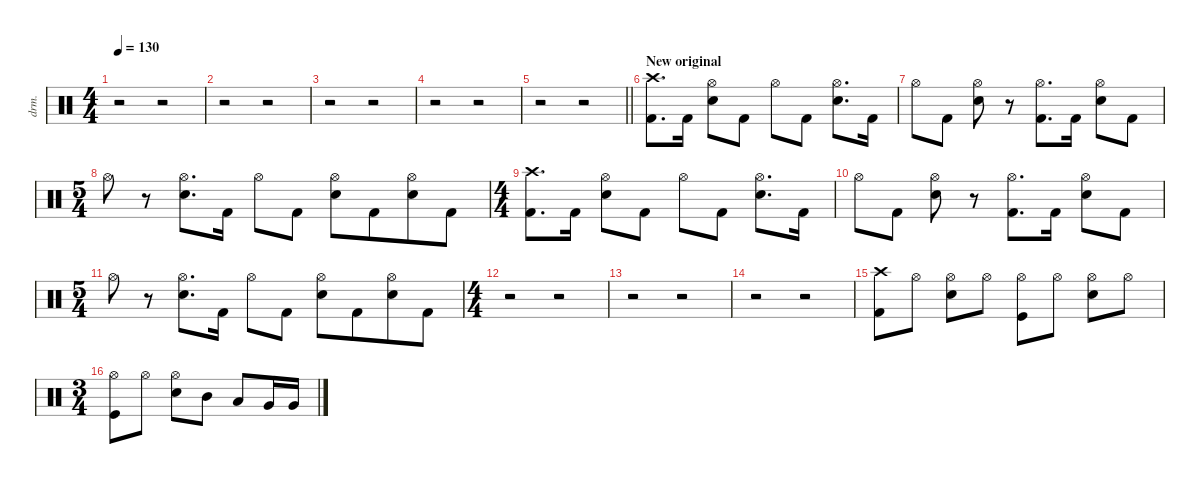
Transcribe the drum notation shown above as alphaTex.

\defaultSystemsLayout 4
\hideDynamics
\bracketExtendMode nobrackets
\track ("Manouche" "drm.") {instrument percussion}
\staff {score}
\articulation defaults
\ts (4 4)
\tempo 130
\clef neutral
\ks c
r.2{dy ff beam Down} r.2{beam Down} |
r.2{beam Down} r.2{beam Down} |
r.2{beam Down} r.2{beam Down} |
r.2{beam Down} r.2{beam Down} |
\barLineRight lightlight
r.2{beam Down} r.2{beam Down} |
\section ("" "New original")
("Crash high (hit)" "Kick (hit) 2").8{d dy f beam Down} "Kick (hit) 2".16{beam Down} ("Hi-Hat (open)" "Snare (hit) 2").8{beam Down} "Kick (hit) 2".8{beam Down} "Hi-Hat (open)".8{beam Down} "Kick (hit) 2".8{beam Down} ("Hi-Hat (open)" "Snare (hit) 2").8{d beam Down} "Kick (hit) 2".16{beam Down} |
"Hi-Hat (open)".8{beam Down} "Kick (hit) 2".8{beam Down} ("Hi-Hat (open)" "Snare (hit) 2").8{beam Down} r.8{beam Down} ("Hi-Hat (open)" "Kick (hit) 2").8{d beam Down} "Kick (hit) 2".16{beam Down} ("Hi-Hat (open)" "Snare (hit) 2").8{beam Down} "Kick (hit) 2".8{beam Down} |
\ts (5 4)
\beaming (8 2 2 2 4)
"Hi-Hat (open)".8{beam Down} r.8{beam Down} ("Hi-Hat (open)" "Snare (hit) 2").8{d beam Down} "Kick (hit) 2".16{beam Down} "Hi-Hat (open)".8{beam Down} "Kick (hit) 2".8{beam Down} ("Hi-Hat (open)" "Snare (hit) 2").8{beam Down} "Kick (hit) 2".8{beam Down} ("Hi-Hat (open)" "Snare (hit) 2").8{beam Down} "Kick (hit) 2".8{beam Down} |
\ts (4 4)
\beaming (8 2 2 2 2)
("Crash high (hit)" "Kick (hit) 2").8{d beam Down} "Kick (hit) 2".16{beam Down} ("Hi-Hat (open)" "Snare (hit) 2").8{beam Down} "Kick (hit) 2".8{beam Down} "Hi-Hat (open)".8{beam Down} "Kick (hit) 2".8{beam Down} ("Hi-Hat (open)" "Snare (hit) 2").8{d beam Down} "Kick (hit) 2".16{beam Down} |
"Hi-Hat (open)".8{beam Down} "Kick (hit) 2".8{beam Down} ("Hi-Hat (open)" "Snare (hit) 2").8{beam Down} r.8{beam Down} ("Hi-Hat (open)" "Kick (hit) 2").8{d beam Down} "Kick (hit) 2".16{beam Down} ("Hi-Hat (open)" "Snare (hit) 2").8{beam Down} "Kick (hit) 2".8{beam Down} |
\ts (5 4)
\beaming (8 2 2 2 4)
"Hi-Hat (open)".8{beam Down} r.8{beam Down} ("Hi-Hat (open)" "Snare (hit) 2").8{d beam Down} "Kick (hit) 2".16{beam Down} "Hi-Hat (open)".8{beam Down} "Kick (hit) 2".8{beam Down} ("Hi-Hat (open)" "Snare (hit) 2").8{beam Down} "Kick (hit) 2".8{beam Down} ("Hi-Hat (open)" "Snare (hit) 2").8{beam Down} "Kick (hit) 2".8{beam Down} |
\ts (4 4)
\beaming (8 2 2 2 2)
r.2{beam Down} r.2{beam Down} |
r.2{beam Down} r.2{beam Down} |
r.2{beam Down} r.2{beam Down} |
("Crash high (hit)" "Kick (hit) 2").8{dy fff beam Down} "Hi-Hat (open)".8{dy mp beam Down} ("Hi-Hat (open)" "Snare (hit) 2").8{dy f beam Down} "Hi-Hat (open)".8{dy mp beam Down} ("Hi-Hat (open)" "Kick (hit)").8{dy f beam Down} "Hi-Hat (open)".8{dy mp beam Down} ("Hi-Hat (open)" "Snare (hit) 2").8{dy f beam Down} "Hi-Hat (open)".8{dy mp beam Down} |
\ts (3 4)
\beaming (8 2 2 2)
("Hi-Hat (open)" "Kick (hit)").8{dy f beam Down} "Hi-Hat (open)".8{dy mp beam Down} ("Hi-Hat (open)" "Snare (hit) 2").8{dy f beam Down} "Mid Tom (hit)".8{beam Down} "Low Tom (hit)".8{beam Up} "Very Low Tom (hit)".16{beam Up} "Very Low Tom (hit)".16{beam Up}
